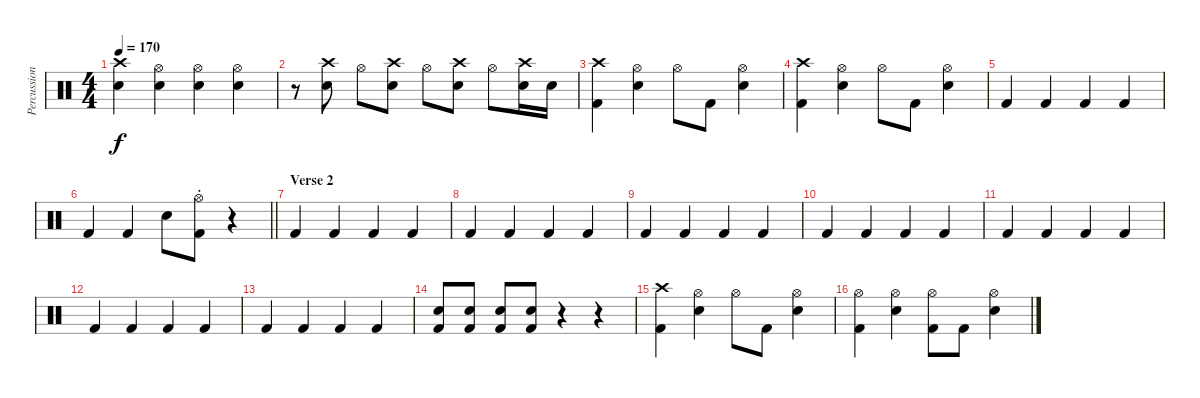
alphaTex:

\track ("Percussion" "Percussion") {instrument percussion}
\staff {score}
\articulation defaults
\ts (4 4)
\tempo 170
\clef neutral
\ks c
("Crash high (hit)" "Snare (hit) 2").4{dy f} ("Hi-Hat (open)" "Snare (hit) 2").4 ("Hi-Hat (open)" "Snare (hit) 2").4 ("Hi-Hat (open)" "Snare (hit) 2").4 |
r.8 ("Crash high (hit)" "Snare (hit) 2").8 "Hi-Hat (open)".8 ("Crash high (hit)" "Snare (hit) 2").8 "Hi-Hat (open)".8 ("Crash high (hit)" "Snare (hit) 2").8 "Hi-Hat (open)".8 ("Crash high (hit)" "Snare (hit) 2").16 "Snare (hit) 2".16 |
("Crash high (hit)" "Kick (hit) 2").4 ("Hi-Hat (open)" "Snare (hit) 2").4 "Hi-Hat (open)".8 "Kick (hit) 2".8 ("Hi-Hat (open)" "Snare (hit) 2").4 |
("Crash high (hit)" "Kick (hit) 2").4 ("Hi-Hat (open)" "Snare (hit) 2").4 "Hi-Hat (open)".8 "Kick (hit) 2".8 ("Hi-Hat (open)" "Snare (hit) 2").4 |
"Kick (hit) 2".4 "Kick (hit) 2".4 "Kick (hit) 2".4 "Kick (hit) 2".4 |
\barLineRight lightlight "Kick (hit) 2".4 "Kick (hit) 2".4 "Snare (hit) 2".8
("Hi-Hat (open)"{st} "Kick (hit) 2").8 r.4 |
\section ("" "Verse 2")
"Kick (hit) 2".4 "Kick (hit) 2".4 "Kick (hit) 2".4 "Kick (hit) 2".4 |
"Kick (hit) 2".4 "Kick (hit) 2".4 "Kick (hit) 2".4 "Kick (hit) 2".4 |
"Kick (hit) 2".4 "Kick (hit) 2".4 "Kick (hit) 2".4 "Kick (hit) 2".4 |
"Kick (hit) 2".4 "Kick (hit) 2".4 "Kick (hit) 2".4 "Kick (hit) 2".4 |
"Kick (hit) 2".4 "Kick (hit) 2".4 "Kick (hit) 2".4 "Kick (hit) 2".4 |
"Kick (hit) 2".4 "Kick (hit) 2".4 "Kick (hit) 2".4 "Kick (hit) 2".4 |
"Kick (hit) 2".4 "Kick (hit) 2".4 "Kick (hit) 2".4 "Kick (hit) 2".4 |
("Snare (hit) 2" "Kick (hit) 2").8 ("Snare (hit) 2" "Kick (hit) 2").8 ("Snare (hit) 2" "Kick (hit) 2").8 ("Snare (hit) 2" "Kick (hit) 2").8 r.4 r.4 |
("Crash high (hit)" "Kick (hit) 2").4 ("Hi-Hat (open)" "Snare (hit) 2").4 "Hi-Hat (open)".8 "Kick (hit) 2".8 ("Hi-Hat (open)" "Snare (hit) 2").4 |
("Hi-Hat (open)" "Kick (hit) 2").4 ("Hi-Hat (open)" "Snare (hit) 2").4 ("Hi-Hat (open)" "Kick (hit) 2").8 "Kick (hit) 2".8 ("Hi-Hat (open)" "Snare (hit) 2").4
